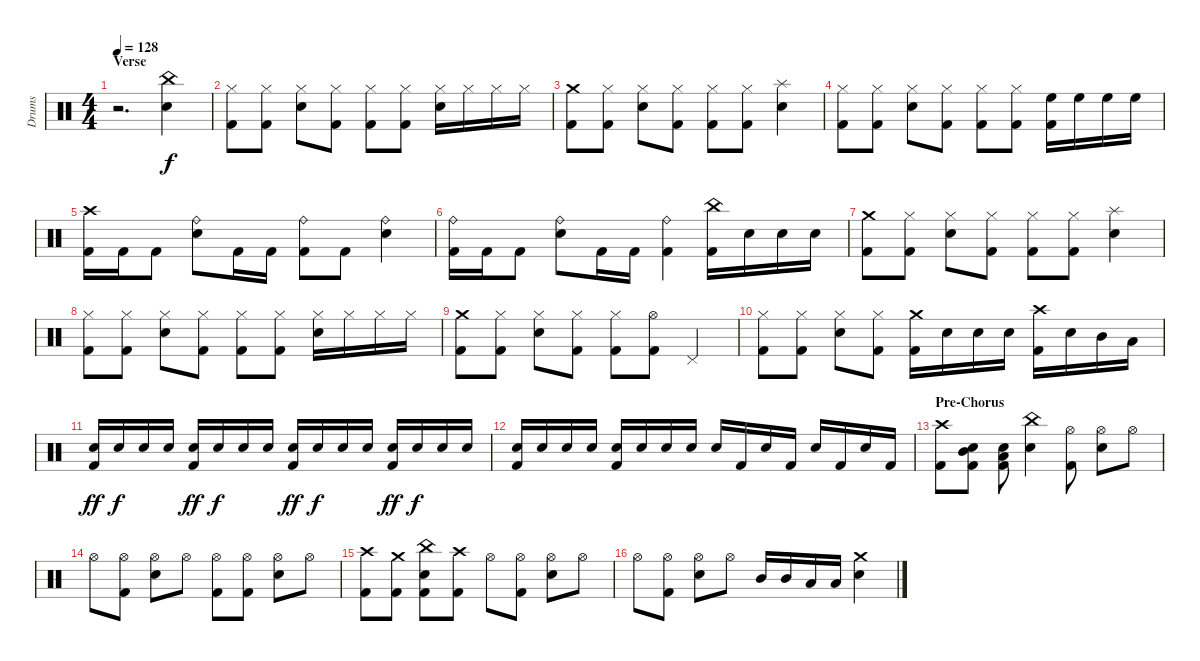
\track ("Drums" "Drums") {instrument percussion}
\staff {score}
\articulation defaults
\ts (4 4)
\section ("" "Verse")
\tempo 128
\clef neutral
\ks c
r.2{d dy f} ("China (hit)" "Snare (hit) 2").4 |
("Hi-Hat (closed)" "Kick (hit) 2").8 ("Hi-Hat (closed)" "Kick (hit) 2").8 ("Hi-Hat (closed)" "Snare (hit) 2").8 ("Hi-Hat (closed)" "Kick (hit) 2").8 ("Hi-Hat (closed)" "Kick (hit) 2").8 ("Hi-Hat (closed)" "Kick (hit) 2").8 ("Hi-Hat (closed)" "Snare (hit) 2").16 "Hi-Hat (closed)".16 "Hi-Hat (closed)".16 "Hi-Hat (closed)".16 |
("Crash medium (hit)" "Kick (hit) 2").8 ("Hi-Hat (closed)" "Kick (hit) 2").8 ("Hi-Hat (closed)" "Snare (hit) 2").8 ("Hi-Hat (closed)" "Kick (hit) 2").8 ("Hi-Hat (closed)" "Kick (hit) 2").8 ("Hi-Hat (closed)" "Kick (hit) 2").8 ("Splash (hit)" "Snare (hit) 2").4 |
("Hi-Hat (closed)" "Kick (hit) 2").8 ("Hi-Hat (closed)" "Kick (hit) 2").8 ("Hi-Hat (closed)" "Snare (hit) 2").8 ("Hi-Hat (closed)" "Kick (hit) 2").8 ("Hi-Hat (closed)" "Kick (hit) 2").8 ("Hi-Hat (closed)" "Kick (hit) 2").8 ("High Floor Tom (hit)" "Kick (hit) 2").16 "High Floor Tom (hit)".16 "High Floor Tom (hit)".16 "High Floor Tom (hit)".16 |
("Crash high (hit)" "Kick (hit) 2").16 "Kick (hit) 2".16 "Kick (hit) 2".8 ("Ride (bell)" "Snare (hit) 2").8 "Kick (hit) 2".16 "Kick (hit) 2".16 ("Ride (bell)" "Kick (hit) 2").8 "Kick (hit) 2".8 ("Ride (bell)" "Snare (hit) 2").4 |
("Ride (bell)" "Kick (hit) 2").16 "Kick (hit) 2".16 "Kick (hit) 2".8 ("Ride (bell)" "Snare (hit) 2").8 "Kick (hit) 2".16 "Kick (hit) 2".16 ("Ride (bell)" "Kick (hit) 2").4 ("China (hit)" "Kick (hit) 2").16 "Snare (hit) 2".16 "Snare (hit) 2".16 "Snare (hit) 2".16 |
("Crash medium (hit)" "Kick (hit) 2").8 ("Hi-Hat (closed)" "Kick (hit) 2").8 ("Hi-Hat (closed)" "Snare (hit) 2").8 ("Hi-Hat (closed)" "Kick (hit) 2").8 ("Hi-Hat (closed)" "Kick (hit) 2").8 ("Hi-Hat (closed)" "Kick (hit) 2").8 ("Splash (hit)" "Snare (hit) 2").4 |
("Hi-Hat (closed)" "Kick (hit) 2").8 ("Hi-Hat (closed)" "Kick (hit) 2").8 ("Hi-Hat (closed)" "Snare (hit) 2").8 ("Hi-Hat (closed)" "Kick (hit) 2").8 ("Hi-Hat (closed)" "Kick (hit) 2").8 ("Hi-Hat (closed)" "Kick (hit) 2").8 ("Hi-Hat (closed)" "Snare (hit) 2").16 "Hi-Hat (closed)".16 "Hi-Hat (closed)".16 "Hi-Hat (closed)".16 |
("Crash medium (hit)" "Kick (hit) 2").8 ("Hi-Hat (closed)" "Kick (hit) 2").8 ("Hi-Hat (closed)" "Snare (hit) 2").8 ("Hi-Hat (closed)" "Kick (hit) 2").8 ("Hi-Hat (closed)" "Kick (hit) 2").8 ("Hi-Hat (open)" "Kick (hit) 2").8 "Pedal Hi-Hat (hit)".4 |
("Hi-Hat (closed)" "Kick (hit) 2").8 ("Hi-Hat (closed)" "Kick (hit) 2").8 ("Hi-Hat (closed)" "Snare (hit) 2").8 ("Hi-Hat (closed)" "Kick (hit) 2").8 ("Crash medium (hit)" "Kick (hit) 2").16 "Snare (hit) 2".16 "Snare (hit) 2".16 "Snare (hit) 2".16 ("Crash high (hit)" "Kick (hit) 2").16 "Snare (hit) 2".16 "Mid Tom (hit)".16 "Low Tom (hit)".16 |
("Snare (hit) 2" "Kick (hit) 2").16{dy ff volume 7} "Snare (hit) 2".16{dy f volume 13} "Snare (hit) 2".16 "Snare (hit) 2".16 ("Snare (hit) 2" "Kick (hit) 2").16{dy ff} "Snare (hit) 2".16{dy f} "Snare (hit) 2".16 "Snare (hit) 2".16 ("Snare (hit) 2" "Kick (hit) 2").16{dy ff} "Snare (hit) 2".16{dy f} "Snare (hit) 2".16 "Snare (hit) 2".16 ("Snare (hit) 2" "Kick (hit) 2").16{dy ff} "Snare (hit) 2".16{dy f} "Snare (hit) 2".16 "Snare (hit) 2".16 |
("Snare (hit) 2" "Kick (hit) 2").16 "Snare (hit) 2".16 "Snare (hit) 2".16 "Snare (hit) 2".16 ("Snare (hit) 2" "Kick (hit) 2").16 "Snare (hit) 2".16 "Snare (hit) 2".16 "Snare (hit) 2".16 "Snare (hit) 2".16 "Kick (hit) 2".16 "Snare (hit) 2".16 "Kick (hit) 2".16 "Snare (hit) 2".16 "Kick (hit) 2".16 "Snare (hit) 2".16 "Kick (hit) 2".16 |
\section ("" "Pre-Chorus")
("Crash high (hit)" "Kick (hit) 2").8 ("Snare (hit) 2" "Mid Tom (hit)" "Kick (hit) 2").8 ("Snare (hit) 2" "Low Tom (hit)" "Kick (hit) 2").8 ("China (hit)" "Snare (hit) 2").4 ("Hi-Hat (open)" "Kick (hit) 2").8 ("Hi-Hat (open)" "Snare (hit) 2").8 "Hi-Hat (open)".8 |
"Hi-Hat (open)".8 ("Hi-Hat (open)" "Kick (hit) 2").8 ("Hi-Hat (open)" "Snare (hit) 2").8 "Hi-Hat (open)".8 ("Hi-Hat (open)" "Kick (hit) 2").8 ("Hi-Hat (open)" "Kick (hit) 2").8 ("Hi-Hat (open)" "Snare (hit) 2").8 "Hi-Hat (open)".8 |
("Crash high (hit)" "Kick (hit) 2").8 ("Crash medium (hit)" "Kick (hit) 2").8 ("China (hit)" "Snare (hit) 2" "Kick (hit) 2").8 ("Crash high (hit)" "Kick (hit) 2").8 "Hi-Hat (open)".8 ("Hi-Hat (open)" "Kick (hit) 2").8 ("Hi-Hat (open)" "Snare (hit) 2").8 "Hi-Hat (open)".8 |
"Hi-Hat (open)".8 ("Hi-Hat (open)" "Kick (hit) 2").8 ("Hi-Hat (open)" "Snare (hit) 2").8 "Hi-Hat (open)".8 "Mid Tom (hit)".16 "Mid Tom (hit)".16 "Low Tom (hit)".16 "Low Tom (hit)".16 ("Crash medium (hit)" "Snare (hit) 2").4
